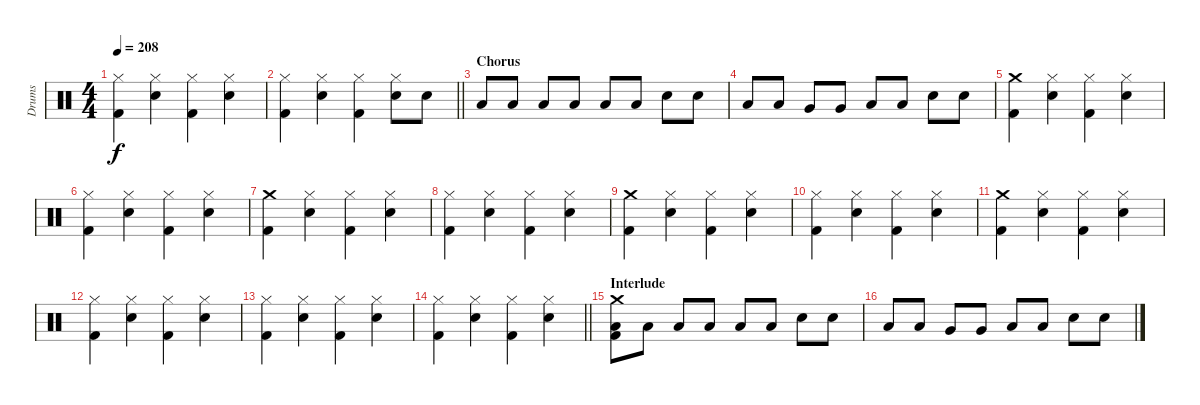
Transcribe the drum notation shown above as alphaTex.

\track ("Drums" "Drums") {instrument percussion}
\staff {score}
\articulation defaults
\ts (4 4)
\tempo 208
\clef neutral
\ks c
("Hi-Hat (closed)" "Kick (hit) 2").4{dy f} ("Hi-Hat (closed)" "Snare (hit) 2").4 ("Hi-Hat (closed)" "Kick (hit) 2").4 ("Hi-Hat (closed)" "Snare (hit) 2").4 |
\barLineRight lightlight
("Hi-Hat (closed)" "Kick (hit) 2").4 ("Hi-Hat (closed)" "Snare (hit) 2").4 ("Hi-Hat (closed)" "Kick (hit) 2").4 ("Hi-Hat (closed)" "Snare (hit) 2").8 "Snare (hit) 2".8 |
\section ("" "Chorus")
"Low Floor Tom (hit)".8 "Low Floor Tom (hit)".8 "Low Tom (hit)".8 "Low Tom (hit)".8 "Low Floor Tom (hit)".8 "Low Floor Tom (hit)".8 "Snare (hit) 2".8 "Snare (hit) 2".8 |
"Low Floor Tom (hit)".8 "Low Floor Tom (hit)".8 "Very Low Tom (hit)".8 "Very Low Tom (hit)".8 "Low Floor Tom (hit)".8 "Low Floor Tom (hit)".8 "Snare (hit) 2".8 "Snare (hit) 2".8 |
("Crash medium (hit)" "Kick (hit) 2").4 ("Hi-Hat (closed)" "Snare (hit) 2").4 ("Hi-Hat (closed)" "Kick (hit) 2").4 ("Hi-Hat (closed)" "Snare (hit) 2").4 |
("Hi-Hat (closed)" "Kick (hit) 2").4 ("Hi-Hat (closed)" "Snare (hit) 2").4 ("Hi-Hat (closed)" "Kick (hit) 2").4 ("Hi-Hat (closed)" "Snare (hit) 2").4 |
("Crash medium (hit)" "Kick (hit) 2").4 ("Hi-Hat (closed)" "Snare (hit) 2").4 ("Hi-Hat (closed)" "Kick (hit) 2").4 ("Hi-Hat (closed)" "Snare (hit) 2").4 |
("Hi-Hat (closed)" "Kick (hit) 2").4 ("Hi-Hat (closed)" "Snare (hit) 2").4 ("Hi-Hat (closed)" "Kick (hit) 2").4 ("Hi-Hat (closed)" "Snare (hit) 2").4 |
("Crash medium (hit)" "Kick (hit) 2").4 ("Hi-Hat (closed)" "Snare (hit) 2").4 ("Hi-Hat (closed)" "Kick (hit) 2").4 ("Hi-Hat (closed)" "Snare (hit) 2").4 |
("Hi-Hat (closed)" "Kick (hit) 2").4 ("Hi-Hat (closed)" "Snare (hit) 2").4 ("Hi-Hat (closed)" "Kick (hit) 2").4 ("Hi-Hat (closed)" "Snare (hit) 2").4 |
("Crash medium (hit)" "Kick (hit) 2").4 ("Hi-Hat (closed)" "Snare (hit) 2").4 ("Hi-Hat (closed)" "Kick (hit) 2").4 ("Hi-Hat (closed)" "Snare (hit) 2").4 |
("Hi-Hat (closed)" "Kick (hit) 2").4 ("Hi-Hat (closed)" "Snare (hit) 2").4 ("Hi-Hat (closed)" "Kick (hit) 2").4 ("Hi-Hat (closed)" "Snare (hit) 2").4 |
("Hi-Hat (closed)" "Kick (hit) 2").4 ("Hi-Hat (closed)" "Snare (hit) 2").4 ("Hi-Hat (closed)" "Kick (hit) 2").4 ("Hi-Hat (closed)" "Snare (hit) 2").4 |
\barLineRight lightlight
("Hi-Hat (closed)" "Kick (hit) 2").4 ("Hi-Hat (closed)" "Snare (hit) 2").4 ("Hi-Hat (closed)" "Kick (hit) 2").4 ("Hi-Hat (closed)" "Snare (hit) 2").4 |
\section ("" "Interlude")
("Crash medium (hit)" "Low Floor Tom (hit)" "Kick (hit) 2").8 "Low Floor Tom (hit)".8 "Low Tom (hit)".8 "Low Tom (hit)".8 "Low Floor Tom (hit)".8 "Low Floor Tom (hit)".8 "Snare (hit) 2".8 "Snare (hit) 2".8 |
"Low Floor Tom (hit)".8 "Low Floor Tom (hit)".8 "Very Low Tom (hit)".8 "Very Low Tom (hit)".8 "Low Floor Tom (hit)".8 "Low Floor Tom (hit)".8 "Snare (hit) 2".8 "Snare (hit) 2".8
